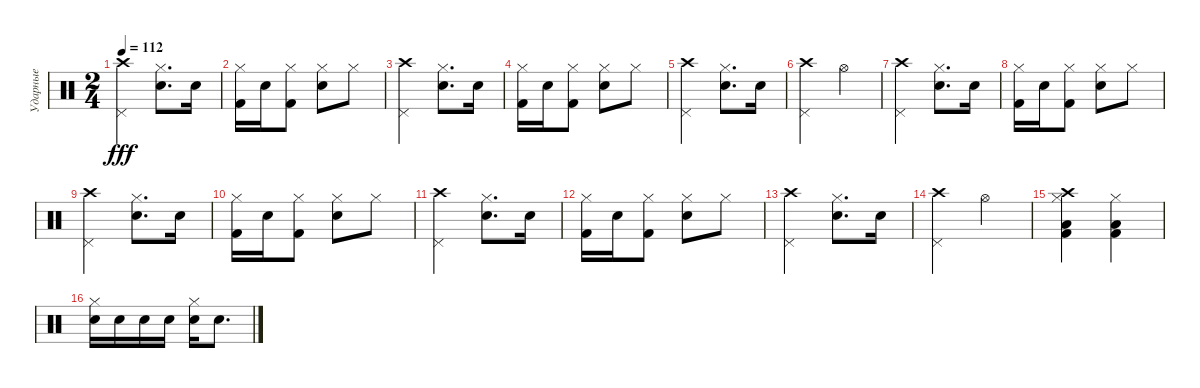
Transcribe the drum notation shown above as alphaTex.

\track ("Ударные" "Ударные") {instrument percussion}
\staff {score}
\articulation defaults
\ts (2 4)
\tempo 112
\clef neutral
\ks c
("Pedal Hi-Hat (hit)" "Crash high (hit)").4{dy fff} ("Hi-Hat (closed)" "Electric Snare (hit)").8{d} "Electric Snare (hit)".16 |
("Kick (hit) 2" "Hi-Hat (closed)").16 "Electric Snare (hit)".16 ("Kick (hit) 2" "Hi-Hat (closed)").8 ("Electric Snare (hit)" "Hi-Hat (closed)").8 "Hi-Hat (closed)".8 |
("Pedal Hi-Hat (hit)" "Crash high (hit)").4 ("Hi-Hat (closed)" "Electric Snare (hit)").8{d} "Electric Snare (hit)".16 |
("Kick (hit) 2" "Hi-Hat (closed)").16 "Electric Snare (hit)".16 ("Kick (hit) 2" "Hi-Hat (closed)").8 ("Electric Snare (hit)" "Hi-Hat (closed)").8 "Hi-Hat (closed)".8 |
("Pedal Hi-Hat (hit)" "Crash high (hit)").4 ("Hi-Hat (closed)" "Electric Snare (hit)").8{d} "Electric Snare (hit)".16 |
("Pedal Hi-Hat (hit)" "Crash high (hit)").4 "Hi-Hat (open)".4 |
("Pedal Hi-Hat (hit)" "Crash high (hit)").4 ("Hi-Hat (closed)" "Electric Snare (hit)").8{d} "Electric Snare (hit)".16 |
("Kick (hit) 2" "Hi-Hat (closed)").16 "Electric Snare (hit)".16 ("Kick (hit) 2" "Hi-Hat (closed)").8 ("Electric Snare (hit)" "Hi-Hat (closed)").8 "Hi-Hat (closed)".8 |
("Pedal Hi-Hat (hit)" "Crash high (hit)").4 ("Electric Snare (hit)" "Hi-Hat (closed)").8{d} "Electric Snare (hit)".16 |
("Kick (hit) 2" "Hi-Hat (closed)").16 "Electric Snare (hit)".16 ("Kick (hit) 2" "Hi-Hat (closed)").8 ("Electric Snare (hit)" "Hi-Hat (closed)").8 "Hi-Hat (closed)".8 |
("Pedal Hi-Hat (hit)" "Crash high (hit)").4 ("Hi-Hat (closed)" "Electric Snare (hit)").8{d} "Electric Snare (hit)".16 |
("Kick (hit) 2" "Hi-Hat (closed)").16 "Electric Snare (hit)".16 ("Kick (hit) 2" "Hi-Hat (closed)").8 ("Electric Snare (hit)" "Hi-Hat (closed)").8 "Hi-Hat (closed)".8 |
("Pedal Hi-Hat (hit)" "Crash high (hit)").4 ("Electric Snare (hit)" "Hi-Hat (closed)").8{d} "Electric Snare (hit)".16 |
("Pedal Hi-Hat (hit)" "Crash high (hit)").4 "Hi-Hat (open)".4 |
("Hi-Hat (closed)" "Crash high (hit)" "Low Floor Tom (hit)" "Kick (hit) 2").4 ("Kick (hit) 2" "Low Floor Tom (hit)" "Hi-Hat (closed)").4 |
("Hi-Hat (closed)" "Electric Snare (hit)").16 "Electric Snare (hit)".16 "Electric Snare (hit)".16 "Electric Snare (hit)".16 ("Electric Snare (hit)" "Hi-Hat (closed)").16 "Electric Snare (hit)".8{d}
